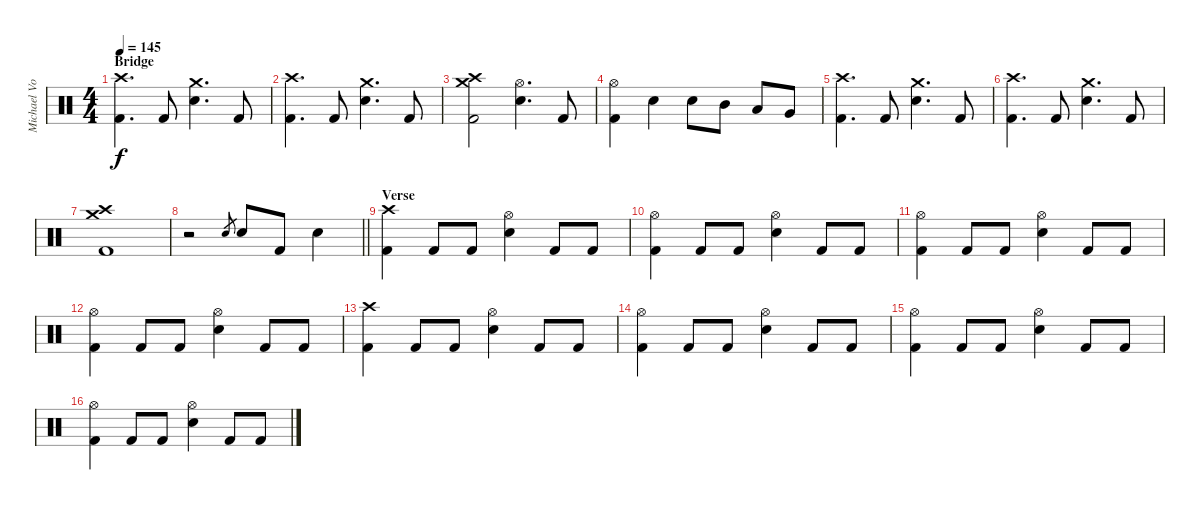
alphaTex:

\track ("Michael Von Knorring" "Michael Vo") {instrument percussion}
\staff {score}
\articulation defaults
\ts (4 4)
\section ("" "Bridge")
\tempo 145
\clef neutral
\ks c
("Crash high (hit)" "Kick (hit) 2").4{d dy f} "Kick (hit) 2".8 ("Crash medium (hit)" "Snare (hit) 2").4{d} "Kick (hit) 2".8 |
("Crash high (hit)" "Kick (hit) 2").4{d} "Kick (hit) 2".8 ("Crash medium (hit)" "Snare (hit) 2").4{d} "Kick (hit) 2".8 |
("Crash medium (hit)" "Crash high (hit)" "Kick (hit) 2").2 ("Hi-Hat (open)" "Snare (hit) 2").4{d} "Kick (hit) 2".8 |
("Hi-Hat (open)" "Kick (hit) 2").4 "Snare (hit) 2".4 "Snare (hit) 2".8 "Mid Tom (hit)".8 "Low Tom (hit)".8 "Very Low Tom (hit)".8 |
("Crash high (hit)" "Kick (hit) 2").4{d} "Kick (hit) 2".8 ("Crash medium (hit)" "Snare (hit) 2").4{d} "Kick (hit) 2".8 |
("Crash high (hit)" "Kick (hit) 2").4{d} "Kick (hit) 2".8 ("Crash medium (hit)" "Snare (hit) 2").4{d} "Kick (hit) 2".8 |
("Crash medium (hit)" "Crash high (hit)" "Kick (hit) 2").1 |
\barLineRight lightlight
r.2 "Snare (hit) 2".8{gr} "Snare (hit) 2".8 "Kick (hit) 2".8 "Snare (hit) 2".4 |
\section ("" "Verse")
("Crash high (hit)" "Kick (hit) 2").4 "Kick (hit) 2".8 "Kick (hit) 2".8 ("Hi-Hat (open)" "Snare (hit) 2").4 "Kick (hit) 2".8 "Kick (hit) 2".8 |
("Hi-Hat (open)" "Kick (hit) 2").4 "Kick (hit) 2".8 "Kick (hit) 2".8 ("Hi-Hat (open)" "Snare (hit) 2").4 "Kick (hit) 2".8 "Kick (hit) 2".8 |
("Hi-Hat (open)" "Kick (hit) 2").4 "Kick (hit) 2".8 "Kick (hit) 2".8 ("Hi-Hat (open)" "Snare (hit) 2").4 "Kick (hit) 2".8 "Kick (hit) 2".8 |
("Hi-Hat (open)" "Kick (hit) 2").4 "Kick (hit) 2".8 "Kick (hit) 2".8 ("Hi-Hat (open)" "Snare (hit) 2").4 "Kick (hit) 2".8 "Kick (hit) 2".8 |
("Crash high (hit)" "Kick (hit) 2").4 "Kick (hit) 2".8 "Kick (hit) 2".8 ("Hi-Hat (open)" "Snare (hit) 2").4 "Kick (hit) 2".8 "Kick (hit) 2".8 |
("Hi-Hat (open)" "Kick (hit) 2").4 "Kick (hit) 2".8 "Kick (hit) 2".8 ("Hi-Hat (open)" "Snare (hit) 2").4 "Kick (hit) 2".8 "Kick (hit) 2".8 |
("Hi-Hat (open)" "Kick (hit) 2").4 "Kick (hit) 2".8 "Kick (hit) 2".8 ("Hi-Hat (open)" "Snare (hit) 2").4 "Kick (hit) 2".8 "Kick (hit) 2".8 |
("Hi-Hat (open)" "Kick (hit) 2").4 "Kick (hit) 2".8 "Kick (hit) 2".8 ("Hi-Hat (open)" "Snare (hit) 2").4 "Kick (hit) 2".8 "Kick (hit) 2".8
